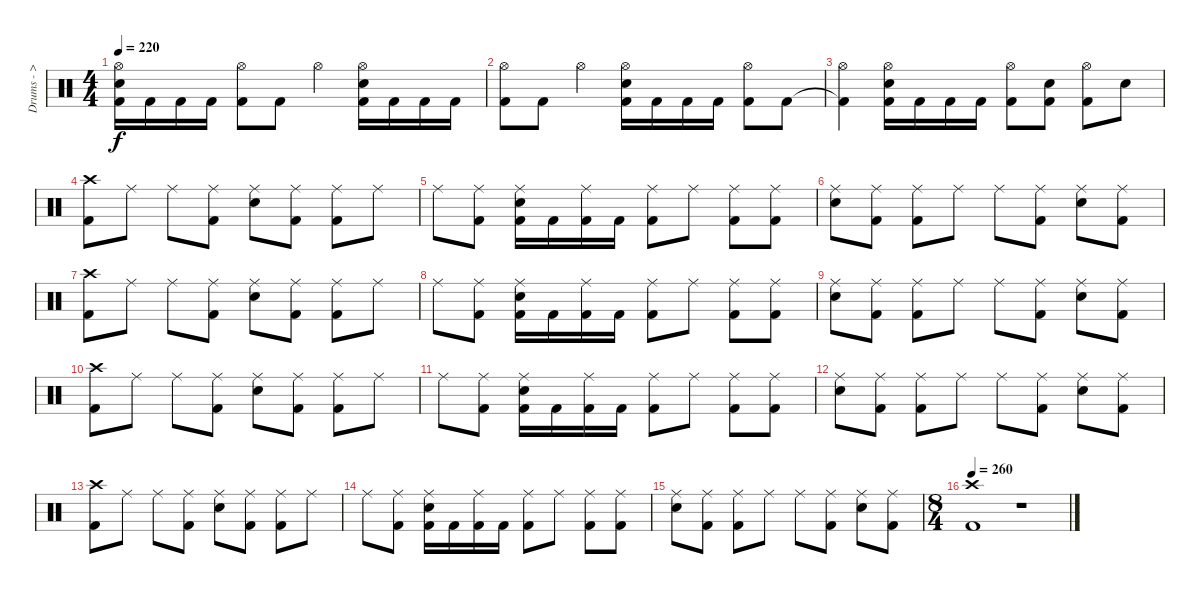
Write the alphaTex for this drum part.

\track ("Drums - > Nicholas" "Drums - > ") {instrument percussion}
\staff {score}
\articulation defaults
\ts (4 4)
\tempo 220
\clef neutral
\ks c
("Kick (hit) 2" "Snare (hit) 2" "Hi-Hat (open)").16{dy f} "Kick (hit) 2".16 "Kick (hit) 2".16 "Kick (hit) 2".16 ("Kick (hit) 2" "Hi-Hat (open)").8 "Kick (hit) 2".8 "Hi-Hat (open)".4 ("Kick (hit) 2" "Snare (hit) 2" "Hi-Hat (open)").16 "Kick (hit) 2".16 "Kick (hit) 2".16 "Kick (hit) 2".16 |
("Kick (hit) 2" "Hi-Hat (open)").8 "Kick (hit) 2".8 "Hi-Hat (open)".4 ("Kick (hit) 2" "Snare (hit) 2" "Hi-Hat (open)").16 "Kick (hit) 2".16 "Kick (hit) 2".16 "Kick (hit) 2".16 ("Kick (hit) 2" "Hi-Hat (open)").8 "Kick (hit) 2".8 |
("Kick (hit) 2"{t} "Hi-Hat (open)").4 ("Kick (hit) 2" "Snare (hit) 2" "Hi-Hat (open)").16 "Kick (hit) 2".16 "Kick (hit) 2".16 "Kick (hit) 2".16 ("Kick (hit) 2" "Hi-Hat (open)").8 ("Kick (hit) 2" "Snare (hit) 2").8 ("Kick (hit) 2" "Hi-Hat (open)").8 "Snare (hit) 2".8 |
("Kick (hit) 2" "Crash high (hit)").8 "Ride (middle)".8 "Ride (middle)".8 ("Kick (hit) 2" "Ride (middle)").8 ("Snare (hit) 2" "Ride (middle)").8 ("Kick (hit) 2" "Ride (middle)").8 ("Kick (hit) 2" "Ride (middle)").8 "Ride (middle)".8 |
"Ride (middle)".8 ("Kick (hit) 2" "Ride (middle)").8 ("Kick (hit) 2" "Snare (hit) 2" "Ride (middle)").16 "Kick (hit) 2".16 ("Kick (hit) 2" "Ride (middle)").16 "Kick (hit) 2".16 ("Kick (hit) 2" "Ride (middle)").8 "Ride (middle)".8 ("Kick (hit) 2" "Ride (middle)").8 ("Kick (hit) 2" "Ride (middle)").8 |
("Snare (hit) 2" "Ride (middle)").8 ("Kick (hit) 2" "Ride (middle)").8 ("Kick (hit) 2" "Ride (middle)").8 "Ride (middle)".8 "Ride (middle)".8 ("Kick (hit) 2" "Ride (middle)").8 ("Snare (hit) 2" "Ride (middle)").8 ("Kick (hit) 2" "Ride (middle)").8 |
("Kick (hit) 2" "Crash high (hit)").8 "Ride (middle)".8 "Ride (middle)".8 ("Kick (hit) 2" "Ride (middle)").8 ("Snare (hit) 2" "Ride (middle)").8 ("Kick (hit) 2" "Ride (middle)").8 ("Kick (hit) 2" "Ride (middle)").8 "Ride (middle)".8 |
"Ride (middle)".8 ("Kick (hit) 2" "Ride (middle)").8 ("Kick (hit) 2" "Snare (hit) 2" "Ride (middle)").16 "Kick (hit) 2".16 ("Kick (hit) 2" "Ride (middle)").16 "Kick (hit) 2".16 ("Kick (hit) 2" "Ride (middle)").8 "Ride (middle)".8 ("Kick (hit) 2" "Ride (middle)").8 ("Kick (hit) 2" "Ride (middle)").8 |
("Snare (hit) 2" "Ride (middle)").8 ("Kick (hit) 2" "Ride (middle)").8 ("Kick (hit) 2" "Ride (middle)").8 "Ride (middle)".8 "Ride (middle)".8 ("Kick (hit) 2" "Ride (middle)").8 ("Snare (hit) 2" "Ride (middle)").8 ("Kick (hit) 2" "Ride (middle)").8 |
("Kick (hit) 2" "Crash high (hit)").8 "Ride (middle)".8 "Ride (middle)".8 ("Kick (hit) 2" "Ride (middle)").8 ("Snare (hit) 2" "Ride (middle)").8 ("Kick (hit) 2" "Ride (middle)").8 ("Kick (hit) 2" "Ride (middle)").8 "Ride (middle)".8 |
"Ride (middle)".8 ("Kick (hit) 2" "Ride (middle)").8 ("Kick (hit) 2" "Snare (hit) 2" "Ride (middle)").16 "Kick (hit) 2".16 ("Kick (hit) 2" "Ride (middle)").16 "Kick (hit) 2".16 ("Kick (hit) 2" "Ride (middle)").8 "Ride (middle)".8 ("Kick (hit) 2" "Ride (middle)").8 ("Kick (hit) 2" "Ride (middle)").8 |
("Snare (hit) 2" "Ride (middle)").8 ("Kick (hit) 2" "Ride (middle)").8 ("Kick (hit) 2" "Ride (middle)").8 "Ride (middle)".8 "Ride (middle)".8 ("Kick (hit) 2" "Ride (middle)").8 ("Snare (hit) 2" "Ride (middle)").8 ("Kick (hit) 2" "Ride (middle)").8 |
("Kick (hit) 2" "Crash high (hit)").8 "Ride (middle)".8 "Ride (middle)".8 ("Kick (hit) 2" "Ride (middle)").8 ("Snare (hit) 2" "Ride (middle)").8 ("Kick (hit) 2" "Ride (middle)").8 ("Kick (hit) 2" "Ride (middle)").8 "Ride (middle)".8 |
"Ride (middle)".8 ("Kick (hit) 2" "Ride (middle)").8 ("Kick (hit) 2" "Snare (hit) 2" "Ride (middle)").16 "Kick (hit) 2".16 ("Kick (hit) 2" "Ride (middle)").16 "Kick (hit) 2".16 ("Kick (hit) 2" "Ride (middle)").8 "Ride (middle)".8 ("Kick (hit) 2" "Ride (middle)").8 ("Kick (hit) 2" "Ride (middle)").8 |
("Snare (hit) 2" "Ride (middle)").8 ("Kick (hit) 2" "Ride (middle)").8 ("Kick (hit) 2" "Ride (middle)").8 "Ride (middle)".8 "Ride (middle)".8 ("Kick (hit) 2" "Ride (middle)").8 ("Snare (hit) 2" "Ride (middle)").8 ("Kick (hit) 2" "Ride (middle)").8 |
\ts (8 4)
\tempo 260
("Kick (hit) 2" "Crash high (hit)").1 r.1
